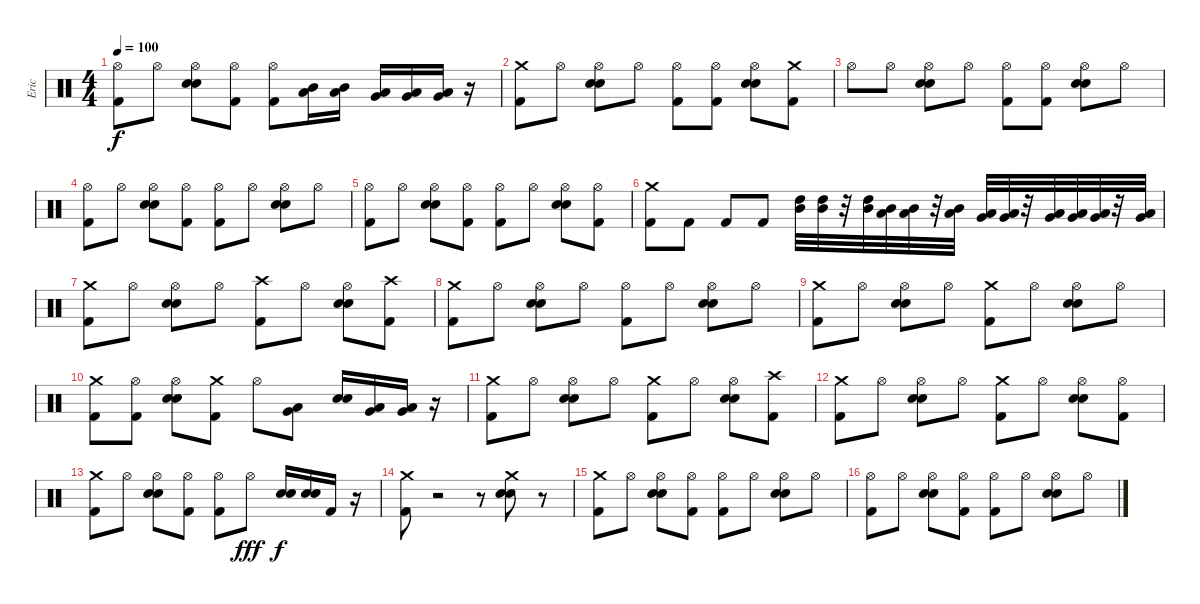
\track ("Eric" "Eric") {instrument percussion}
\staff {score}
\articulation defaults
\ts (4 4)
\tempo 100
\clef neutral
\ks c
("Hi-Hat (open)" "Kick (hit) 2").8{dy f} "Hi-Hat (open)".8 ("Hi-Hat (open)" "Electric Snare (hit)" "Snare (hit) 2").8 ("Hi-Hat (open)" "Kick (hit) 2").8 ("Hi-Hat (open)" "Kick (hit) 2").8 ("Mid Tom (hit)" "Low Tom (hit)").16 ("Mid Tom (hit)" "Low Tom (hit)").16 ("Low Tom (hit)" "Very Low Tom (hit)").16 ("Low Tom (hit)" "Very Low Tom (hit)").16 ("Very Low Tom (hit)" "Low Floor Tom (hit)").16 r.16 |
("Crash medium (hit)" "Kick (hit) 2").8 "Hi-Hat (open)".8 ("Hi-Hat (open)" "Electric Snare (hit)" "Snare (hit) 2").8 "Hi-Hat (open)".8 ("Hi-Hat (open)" "Kick (hit) 2").8 ("Kick (hit) 2" "Hi-Hat (open)").8 ("Hi-Hat (open)" "Electric Snare (hit)" "Snare (hit) 2").8 ("Kick (hit) 2" "Crash medium (hit)").8 |
"Hi-Hat (open)".8 "Hi-Hat (open)".8 ("Hi-Hat (open)" "Electric Snare (hit)" "Snare (hit) 2").8 "Hi-Hat (open)".8 ("Hi-Hat (open)" "Kick (hit) 2").8 ("Kick (hit) 2" "Hi-Hat (open)").8 ("Hi-Hat (open)" "Electric Snare (hit)" "Snare (hit) 2").8 "Hi-Hat (open)".8 |
("Hi-Hat (open)" "Kick (hit) 2").8 "Hi-Hat (open)".8 ("Hi-Hat (open)" "Electric Snare (hit)" "Snare (hit) 2").8 ("Hi-Hat (open)" "Kick (hit) 2").8 ("Hi-Hat (open)" "Kick (hit) 2").8 "Hi-Hat (open)".8 ("Hi-Hat (open)" "Electric Snare (hit)" "Snare (hit) 2").8 "Hi-Hat (open)".8 |
("Hi-Hat (open)" "Kick (hit) 2").8 "Hi-Hat (open)".8 ("Hi-Hat (open)" "Electric Snare (hit)" "Snare (hit) 2").8 ("Hi-Hat (open)" "Kick (hit) 2").8 ("Hi-Hat (open)" "Kick (hit) 2").8 "Hi-Hat (open)".8 ("Hi-Hat (open)" "Electric Snare (hit)" "Snare (hit) 2").8 ("Kick (hit) 2" "Hi-Hat (open)").8 |
("Crash medium (hit)" "Kick (hit) 2").8 "Kick (hit) 2".8 "Kick (hit) 2".8 "Kick (hit) 2".8 ("High Tom (hit)" "Mid Tom (hit)").32 ("High Tom (hit)" "Mid Tom (hit)").32 r.32 ("High Tom (hit)" "Mid Tom (hit)").32 ("Low Tom (hit)" "Mid Tom (hit)").32 ("Low Tom (hit)" "Mid Tom (hit)").32 r.32 ("Low Tom (hit)" "Mid Tom (hit)").32 ("Very Low Tom (hit)" "Low Tom (hit)").32 ("Very Low Tom (hit)" "Low Tom (hit)").32 r.32 ("Very Low Tom (hit)" "Low Tom (hit)").32 ("Low Tom (hit)" "Very Low Tom (hit)").32 ("Low Tom (hit)" "Very Low Tom (hit)").32 r.32 ("Low Tom (hit)" "Very Low Tom (hit)").32 |
("Crash medium (hit)" "Kick (hit) 2").8 "Hi-Hat (open)".8 ("Hi-Hat (open)" "Electric Snare (hit)" "Snare (hit) 2").8 "Hi-Hat (open)".8 ("Crash high (hit)" "Kick (hit) 2").8 "Hi-Hat (open)".8 ("Hi-Hat (open)" "Electric Snare (hit)" "Snare (hit) 2").8 ("Kick (hit) 2" "Crash high (hit)").8 |
("Crash medium (hit)" "Kick (hit) 2").8 "Hi-Hat (open)".8 ("Hi-Hat (open)" "Electric Snare (hit)" "Snare (hit) 2").8 "Hi-Hat (open)".8 ("Hi-Hat (open)" "Kick (hit) 2").8 "Hi-Hat (open)".8 ("Hi-Hat (open)" "Electric Snare (hit)" "Snare (hit) 2").8 "Hi-Hat (open)".8 |
("Crash medium (hit)" "Kick (hit) 2").8 "Hi-Hat (open)".8 ("Hi-Hat (open)" "Electric Snare (hit)" "Snare (hit) 2").8 "Hi-Hat (open)".8 ("Crash medium (hit)" "Kick (hit) 2").8 "Hi-Hat (open)".8 ("Hi-Hat (open)" "Electric Snare (hit)" "Snare (hit) 2").8 "Hi-Hat (open)".8 |
("Crash medium (hit)" "Kick (hit) 2").8 ("Kick (hit) 2" "Hi-Hat (open)").8 ("Hi-Hat (open)" "Electric Snare (hit)" "Snare (hit) 2").8 ("Crash medium (hit)" "Kick (hit) 2").8 "Hi-Hat (open)".8 ("Low Tom (hit)" "Very Low Tom (hit)").8 ("Snare (hit) 2" "Electric Snare (hit)").16 ("Very Low Tom (hit)" "Low Tom (hit)").16 ("Very Low Tom (hit)" "Low Tom (hit)").16 r.16 |
("Crash medium (hit)" "Kick (hit) 2").8 "Hi-Hat (open)".8 ("Hi-Hat (open)" "Electric Snare (hit)" "Snare (hit) 2").8 "Hi-Hat (open)".8 ("Crash medium (hit)" "Kick (hit) 2").8 "Hi-Hat (open)".8 ("Hi-Hat (open)" "Electric Snare (hit)" "Snare (hit) 2").8 ("Kick (hit) 2" "Crash high (hit)").8 |
("Crash medium (hit)" "Kick (hit) 2").8 "Hi-Hat (open)".8 ("Hi-Hat (open)" "Electric Snare (hit)" "Snare (hit) 2").8 "Hi-Hat (open)".8 ("Crash medium (hit)" "Kick (hit) 2").8 "Hi-Hat (open)".8 ("Hi-Hat (open)" "Electric Snare (hit)" "Snare (hit) 2").8 ("Kick (hit) 2" "Hi-Hat (open)").8 |
("Crash medium (hit)" "Kick (hit) 2").8 "Hi-Hat (open)".8 ("Hi-Hat (open)" "Electric Snare (hit)" "Snare (hit) 2").8 ("Hi-Hat (open)" "Kick (hit) 2").8 ("Hi-Hat (open)" "Kick (hit) 2").8 "Hi-Hat (open)".8{dy fff} ("Electric Snare (hit)" "Snare (hit) 2").16{dy f} ("Electric Snare (hit)" "Snare (hit) 2").16 "Kick (hit) 2".16 r.16 |
("Crash medium (hit)" "Kick (hit) 2").8 r.2 r.8 ("Snare (hit) 2" "Crash medium (hit)" "Electric Snare (hit)").8 r.8 |
("Crash medium (hit)" "Kick (hit) 2").8 "Hi-Hat (open)".8 ("Hi-Hat (open)" "Electric Snare (hit)" "Snare (hit) 2").8 ("Hi-Hat (open)" "Kick (hit) 2").8 ("Hi-Hat (open)" "Kick (hit) 2").8 "Hi-Hat (open)".8 ("Hi-Hat (open)" "Electric Snare (hit)" "Snare (hit) 2").8 "Hi-Hat (open)".8 |
("Hi-Hat (open)" "Kick (hit) 2").8 "Hi-Hat (open)".8 ("Hi-Hat (open)" "Electric Snare (hit)" "Snare (hit) 2").8 ("Hi-Hat (open)" "Kick (hit) 2").8 ("Hi-Hat (open)" "Kick (hit) 2").8 "Hi-Hat (open)".8 ("Hi-Hat (open)" "Electric Snare (hit)" "Snare (hit) 2").8 "Hi-Hat (open)".8
